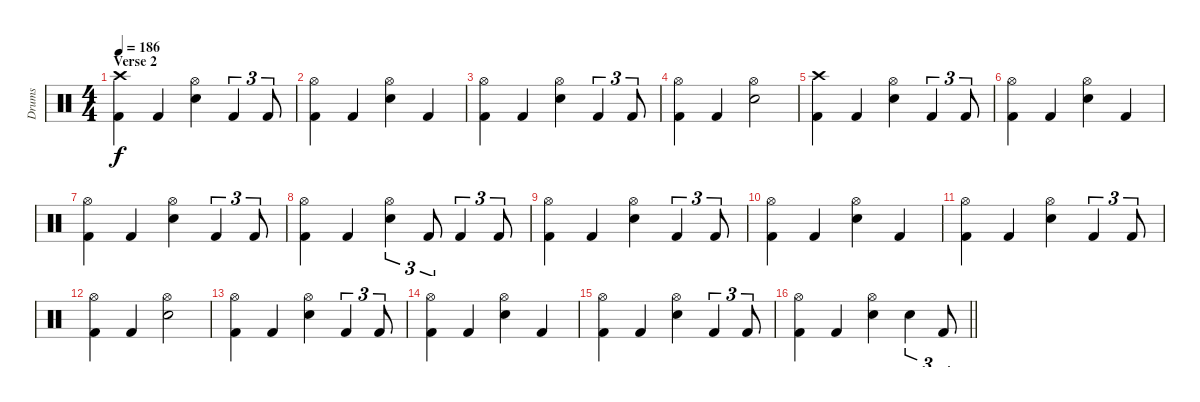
\track ("Drums" "Drums") {instrument percussion}
\staff {score}
\articulation defaults
\ts (4 4)
\section ("" "Verse 2")
\tempo 186
\clef neutral
\ks c
("Crash high (hit)" "Kick (hit) 2").4{dy f} "Kick (hit) 2".4 ("Hi-Hat (open)" "Electric Snare (hit)").4 "Kick (hit) 2".4{tu (3 2)} "Kick (hit) 2".8{tu (3 2)} |
("Hi-Hat (open)" "Kick (hit) 2").4 "Kick (hit) 2".4 ("Hi-Hat (open)" "Electric Snare (hit)").4 "Kick (hit) 2".4 |
("Hi-Hat (open)" "Kick (hit) 2").4 "Kick (hit) 2".4 ("Hi-Hat (open)" "Electric Snare (hit)").4 "Kick (hit) 2".4{tu (3 2)} "Kick (hit) 2".8{tu (3 2)} |
("Hi-Hat (open)" "Kick (hit) 2").4 "Kick (hit) 2".4 ("Hi-Hat (open)" "Electric Snare (hit)").2 |
("Crash high (hit)" "Kick (hit) 2").4 "Kick (hit) 2".4 ("Hi-Hat (open)" "Electric Snare (hit)").4 "Kick (hit) 2".4{tu (3 2)} "Kick (hit) 2".8{tu (3 2)} |
("Hi-Hat (open)" "Kick (hit) 2").4 "Kick (hit) 2".4 ("Hi-Hat (open)" "Electric Snare (hit)").4 "Kick (hit) 2".4 |
("Hi-Hat (open)" "Kick (hit) 2").4 "Kick (hit) 2".4 ("Hi-Hat (open)" "Electric Snare (hit)").4 "Kick (hit) 2".4{tu (3 2)} "Kick (hit) 2".8{tu (3 2)} |
("Hi-Hat (open)" "Kick (hit) 2").4 "Kick (hit) 2".4 ("Hi-Hat (open)" "Electric Snare (hit)").4{tu (3 2)} "Kick (hit) 2".8{tu (3 2)} "Kick (hit) 2".4{tu (3 2)} "Kick (hit) 2".8{tu (3 2)} |
("Hi-Hat (open)" "Kick (hit) 2").4 "Kick (hit) 2".4 ("Hi-Hat (open)" "Electric Snare (hit)").4 "Kick (hit) 2".4{tu (3 2)} "Kick (hit) 2".8{tu (3 2)} |
("Hi-Hat (open)" "Kick (hit) 2").4 "Kick (hit) 2".4 ("Hi-Hat (open)" "Electric Snare (hit)").4 "Kick (hit) 2".4 |
("Hi-Hat (open)" "Kick (hit) 2").4 "Kick (hit) 2".4 ("Hi-Hat (open)" "Electric Snare (hit)").4 "Kick (hit) 2".4{tu (3 2)} "Kick (hit) 2".8{tu (3 2)} |
("Hi-Hat (open)" "Kick (hit) 2").4 "Kick (hit) 2".4 ("Hi-Hat (open)" "Electric Snare (hit)").2 |
("Hi-Hat (open)" "Kick (hit) 2").4 "Kick (hit) 2".4 ("Hi-Hat (open)" "Electric Snare (hit)").4 "Kick (hit) 2".4{tu (3 2)} "Kick (hit) 2".8{tu (3 2)} |
("Hi-Hat (open)" "Kick (hit) 2").4 "Kick (hit) 2".4 ("Hi-Hat (open)" "Electric Snare (hit)").4 "Kick (hit) 2".4 |
("Hi-Hat (open)" "Kick (hit) 2").4 "Kick (hit) 2".4 ("Hi-Hat (open)" "Electric Snare (hit)").4 "Kick (hit) 2".4{tu (3 2)} "Kick (hit) 2".8{tu (3 2)} |
\barLineRight lightlight
("Hi-Hat (open)" "Kick (hit) 2").4 "Kick (hit) 2".4 ("Hi-Hat (open)" "Electric Snare (hit)").4 "Electric Snare (hit)".4{tu (3 2)} "Kick (hit) 2".8{tu (3 2)}
